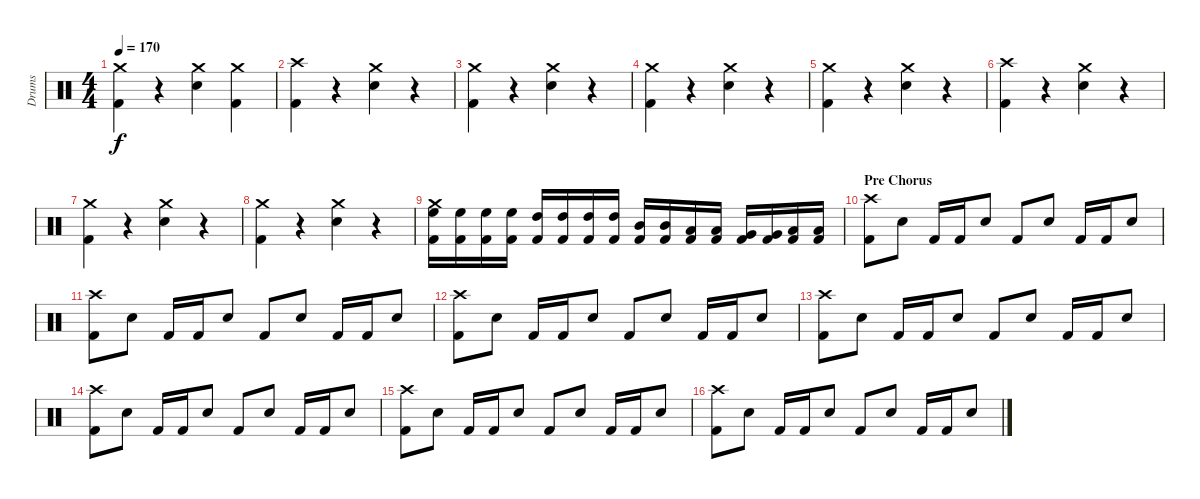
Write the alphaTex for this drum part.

\track ("Drums" "Drums") {instrument percussion}
\staff {score}
\articulation defaults
\ts (4 4)
\tempo 170
\clef neutral
\ks c
("Crash medium (hit)" "Kick (hit) 2").4{dy f} r.4 ("Crash medium (hit)" "Snare (hit) 2").4 ("Crash medium (hit)" "Kick (hit) 2").4 |
("Crash high (hit)" "Kick (hit) 2").4 r.4 ("Crash medium (hit)" "Snare (hit) 2").4 r.4 |
("Crash medium (hit)" "Kick (hit) 2").4 r.4 ("Crash medium (hit)" "Snare (hit) 2").4 r.4 |
("Crash medium (hit)" "Kick (hit) 2").4 r.4 ("Crash medium (hit)" "Snare (hit) 2").4 r.4 |
("Crash medium (hit)" "Kick (hit) 2").4 r.4 ("Crash medium (hit)" "Snare (hit) 2").4 r.4 |
("Crash high (hit)" "Kick (hit) 2").4 r.4 ("Crash medium (hit)" "Snare (hit) 2").4 r.4 |
("Crash medium (hit)" "Kick (hit) 2").4 r.4 ("Crash medium (hit)" "Snare (hit) 2").4 r.4 |
("Crash medium (hit)" "Kick (hit) 2").4 r.4 ("Crash medium (hit)" "Snare (hit) 2").4 r.4 |
("Crash medium (hit)" "High Floor Tom (hit)" "Kick (hit) 2").16 ("High Floor Tom (hit)" "Kick (hit) 2").16 ("High Floor Tom (hit)" "Kick (hit) 2").16 ("High Floor Tom (hit)" "Kick (hit) 2").16 ("High Tom (hit)" "Kick (hit) 2").16 ("High Tom (hit)" "Kick (hit) 2").16 ("High Tom (hit)" "Kick (hit) 2").16 ("High Tom (hit)" "Kick (hit) 2").16 ("Mid Tom (hit)" "Kick (hit) 2").16 ("Mid Tom (hit)" "Kick (hit) 2").16 ("Low Tom (hit)" "Kick (hit) 2").16 ("Low Tom (hit)" "Kick (hit) 2").16 ("Very Low Tom (hit)" "Kick (hit) 2").16 ("Very Low Tom (hit)" "Kick (hit) 2").16 ("Low Floor Tom (hit)" "Kick (hit) 2").16 ("Low Floor Tom (hit)" "Kick (hit) 2").16 |
\section ("" "Pre Chorus")
("Crash high (hit)" "Kick (hit) 2").8 "Snare (hit) 2".8 "Kick (hit) 2".16 "Kick (hit) 2".16 "Snare (hit) 2".8 "Kick (hit) 2".8 "Snare (hit) 2".8 "Kick (hit) 2".16 "Kick (hit) 2".16 "Snare (hit) 2".8 |
("Crash high (hit)" "Kick (hit) 2").8 "Snare (hit) 2".8 "Kick (hit) 2".16 "Kick (hit) 2".16 "Snare (hit) 2".8 "Kick (hit) 2".8 "Snare (hit) 2".8 "Kick (hit) 2".16 "Kick (hit) 2".16 "Snare (hit) 2".8 |
("Crash high (hit)" "Kick (hit) 2").8 "Snare (hit) 2".8 "Kick (hit) 2".16 "Kick (hit) 2".16 "Snare (hit) 2".8 "Kick (hit) 2".8 "Snare (hit) 2".8 "Kick (hit) 2".16 "Kick (hit) 2".16 "Snare (hit) 2".8 |
("Crash high (hit)" "Kick (hit) 2").8 "Snare (hit) 2".8 "Kick (hit) 2".16 "Kick (hit) 2".16 "Snare (hit) 2".8 "Kick (hit) 2".8 "Snare (hit) 2".8 "Kick (hit) 2".16 "Kick (hit) 2".16 "Snare (hit) 2".8 |
("Crash high (hit)" "Kick (hit) 2").8 "Snare (hit) 2".8 "Kick (hit) 2".16 "Kick (hit) 2".16 "Snare (hit) 2".8 "Kick (hit) 2".8 "Snare (hit) 2".8 "Kick (hit) 2".16 "Kick (hit) 2".16 "Snare (hit) 2".8 |
("Crash high (hit)" "Kick (hit) 2").8 "Snare (hit) 2".8 "Kick (hit) 2".16 "Kick (hit) 2".16 "Snare (hit) 2".8 "Kick (hit) 2".8 "Snare (hit) 2".8 "Kick (hit) 2".16 "Kick (hit) 2".16 "Snare (hit) 2".8 |
("Crash high (hit)" "Kick (hit) 2").8 "Snare (hit) 2".8 "Kick (hit) 2".16 "Kick (hit) 2".16 "Snare (hit) 2".8 "Kick (hit) 2".8 "Snare (hit) 2".8 "Kick (hit) 2".16 "Kick (hit) 2".16 "Snare (hit) 2".8
